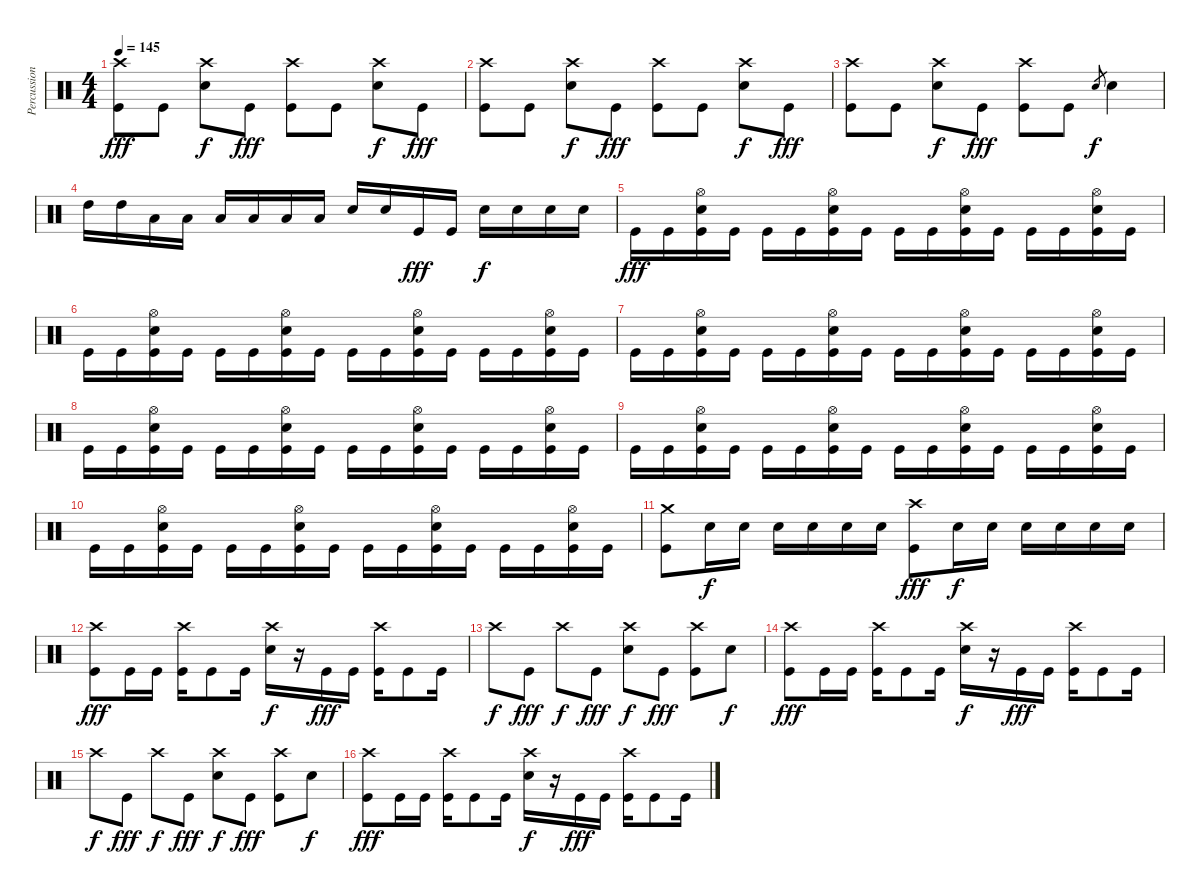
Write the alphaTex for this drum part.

\track ("Percussion" "Percussion") {instrument percussion}
\staff {score}
\articulation defaults
\ts (4 4)
\tempo 145
\clef neutral
\ks c
("Crash high (hit)" "Kick (hit)").8{dy fff} "Kick (hit)".8 ("Crash high (hit)" "Electric Snare (hit)").8{dy f} "Kick (hit)".8{dy fff} ("Crash high (hit)" "Kick (hit)").8 "Kick (hit)".8 ("Crash high (hit)" "Electric Snare (hit)").8{dy f} "Kick (hit)".8{dy fff} |
("Crash high (hit)" "Kick (hit)").8 "Kick (hit)".8 ("Crash high (hit)" "Electric Snare (hit)").8{dy f} "Kick (hit)".8{dy fff} ("Crash high (hit)" "Kick (hit)").8 "Kick (hit)".8 ("Crash high (hit)" "Electric Snare (hit)").8{dy f} "Kick (hit)".8{dy fff} |
("Crash high (hit)" "Kick (hit)").8 "Kick (hit)".8 ("Crash high (hit)" "Electric Snare (hit)").8{dy f} "Kick (hit)".8{dy fff} ("Crash high (hit)" "Kick (hit)").8 "Kick (hit)".8 "Electric Snare (hit)".8{gr dy f} "Electric Snare (hit)".4 |
"High Tom (hit)".16 "High Tom (hit)".16 "Low Floor Tom (hit)".16 "Low Floor Tom (hit)".16 "Low Floor Tom (hit)".16 "Low Floor Tom (hit)".16 "Low Floor Tom (hit)".16 "Low Floor Tom (hit)".16 "Electric Snare (hit)".16 "Electric Snare (hit)".16 "Kick (hit)".16{dy fff} "Kick (hit)".16 "Electric Snare (hit)".16{dy f} "Electric Snare (hit)".16 "Electric Snare (hit)".16 "Electric Snare (hit)".16 |
"Kick (hit)".16{dy fff} "Kick (hit)".16 ("Hi-Hat (open)" "Electric Snare (hit)" "Kick (hit)").16 "Kick (hit)".16 "Kick (hit)".16 "Kick (hit)".16 ("Hi-Hat (open)" "Electric Snare (hit)" "Kick (hit)").16 "Kick (hit)".16 "Kick (hit)".16 "Kick (hit)".16 ("Hi-Hat (open)" "Electric Snare (hit)" "Kick (hit)").16 "Kick (hit)".16 "Kick (hit)".16 "Kick (hit)".16 ("Hi-Hat (open)" "Electric Snare (hit)" "Kick (hit)").16 "Kick (hit)".16 |
"Kick (hit)".16 "Kick (hit)".16 ("Hi-Hat (open)" "Electric Snare (hit)" "Kick (hit)").16 "Kick (hit)".16 "Kick (hit)".16 "Kick (hit)".16 ("Hi-Hat (open)" "Electric Snare (hit)" "Kick (hit)").16 "Kick (hit)".16 "Kick (hit)".16 "Kick (hit)".16 ("Hi-Hat (open)" "Electric Snare (hit)" "Kick (hit)").16 "Kick (hit)".16 "Kick (hit)".16 "Kick (hit)".16 ("Hi-Hat (open)" "Electric Snare (hit)" "Kick (hit)").16 "Kick (hit)".16 |
"Kick (hit)".16 "Kick (hit)".16 ("Hi-Hat (open)" "Electric Snare (hit)" "Kick (hit)").16 "Kick (hit)".16 "Kick (hit)".16 "Kick (hit)".16 ("Hi-Hat (open)" "Electric Snare (hit)" "Kick (hit)").16 "Kick (hit)".16 "Kick (hit)".16 "Kick (hit)".16 ("Hi-Hat (open)" "Electric Snare (hit)" "Kick (hit)").16 "Kick (hit)".16 "Kick (hit)".16 "Kick (hit)".16 ("Hi-Hat (open)" "Electric Snare (hit)" "Kick (hit)").16 "Kick (hit)".16 |
"Kick (hit)".16 "Kick (hit)".16 ("Hi-Hat (open)" "Electric Snare (hit)" "Kick (hit)").16 "Kick (hit)".16 "Kick (hit)".16 "Kick (hit)".16 ("Hi-Hat (open)" "Electric Snare (hit)" "Kick (hit)").16 "Kick (hit)".16 "Kick (hit)".16 "Kick (hit)".16 ("Hi-Hat (open)" "Electric Snare (hit)" "Kick (hit)").16 "Kick (hit)".16 "Kick (hit)".16 "Kick (hit)".16 ("Hi-Hat (open)" "Electric Snare (hit)" "Kick (hit)").16 "Kick (hit)".16 |
"Kick (hit)".16 "Kick (hit)".16 ("Hi-Hat (open)" "Electric Snare (hit)" "Kick (hit)").16 "Kick (hit)".16 "Kick (hit)".16 "Kick (hit)".16 ("Hi-Hat (open)" "Electric Snare (hit)" "Kick (hit)").16 "Kick (hit)".16 "Kick (hit)".16 "Kick (hit)".16 ("Hi-Hat (open)" "Electric Snare (hit)" "Kick (hit)").16 "Kick (hit)".16 "Kick (hit)".16 "Kick (hit)".16 ("Hi-Hat (open)" "Electric Snare (hit)" "Kick (hit)").16 "Kick (hit)".16 |
"Kick (hit)".16 "Kick (hit)".16 ("Hi-Hat (open)" "Electric Snare (hit)" "Kick (hit)").16 "Kick (hit)".16 "Kick (hit)".16 "Kick (hit)".16 ("Hi-Hat (open)" "Electric Snare (hit)" "Kick (hit)").16 "Kick (hit)".16 "Kick (hit)".16 "Kick (hit)".16 ("Hi-Hat (open)" "Electric Snare (hit)" "Kick (hit)").16 "Kick (hit)".16 "Kick (hit)".16 "Kick (hit)".16 ("Hi-Hat (open)" "Electric Snare (hit)" "Kick (hit)").16 "Kick (hit)".16 |
("Crash medium (hit)" "Kick (hit)").8 "Electric Snare (hit)".16{dy f} "Electric Snare (hit)".16 "Electric Snare (hit)".16 "Electric Snare (hit)".16 "Electric Snare (hit)".16 "Electric Snare (hit)".16 ("Crash high (hit)" "Kick (hit)").8{dy fff} "Electric Snare (hit)".16{dy f} "Electric Snare (hit)".16 "Electric Snare (hit)".16 "Electric Snare (hit)".16 "Electric Snare (hit)".16 "Electric Snare (hit)".16 |
("Crash high (hit)" "Kick (hit)").8{dy fff} "Kick (hit)".16 "Kick (hit)".16 ("Crash high (hit)" "Kick (hit)").16 "Kick (hit)".8 "Kick (hit)".16 ("Crash high (hit)" "Electric Snare (hit)").16{dy f} r.16 "Kick (hit)".16{dy fff} "Kick (hit)".16 ("Crash high (hit)" "Kick (hit)").16 "Kick (hit)".8 "Kick (hit)".16 |
"Crash high (hit)".8{dy f} "Kick (hit)".8{dy fff} "Crash high (hit)".8{dy f} "Kick (hit)".8{dy fff} ("Crash high (hit)" "Electric Snare (hit)").8{dy f} "Kick (hit)".8{dy fff} ("Crash high (hit)" "Kick (hit)").8 "Electric Snare (hit)".8{dy f} |
("Crash high (hit)" "Kick (hit)").8{dy fff} "Kick (hit)".16 "Kick (hit)".16 ("Crash high (hit)" "Kick (hit)").16 "Kick (hit)".8 "Kick (hit)".16 ("Crash high (hit)" "Electric Snare (hit)").16{dy f} r.16 "Kick (hit)".16{dy fff} "Kick (hit)".16 ("Crash high (hit)" "Kick (hit)").16 "Kick (hit)".8 "Kick (hit)".16 |
"Crash high (hit)".8{dy f} "Kick (hit)".8{dy fff} "Crash high (hit)".8{dy f} "Kick (hit)".8{dy fff} ("Crash high (hit)" "Electric Snare (hit)").8{dy f} "Kick (hit)".8{dy fff} ("Crash high (hit)" "Kick (hit)").8 "Electric Snare (hit)".8{dy f} |
("Crash high (hit)" "Kick (hit)").8{dy fff} "Kick (hit)".16 "Kick (hit)".16 ("Crash high (hit)" "Kick (hit)").16 "Kick (hit)".8 "Kick (hit)".16 ("Crash high (hit)" "Electric Snare (hit)").16{dy f} r.16 "Kick (hit)".16{dy fff} "Kick (hit)".16 ("Crash high (hit)" "Kick (hit)").16 "Kick (hit)".8 "Kick (hit)".16
